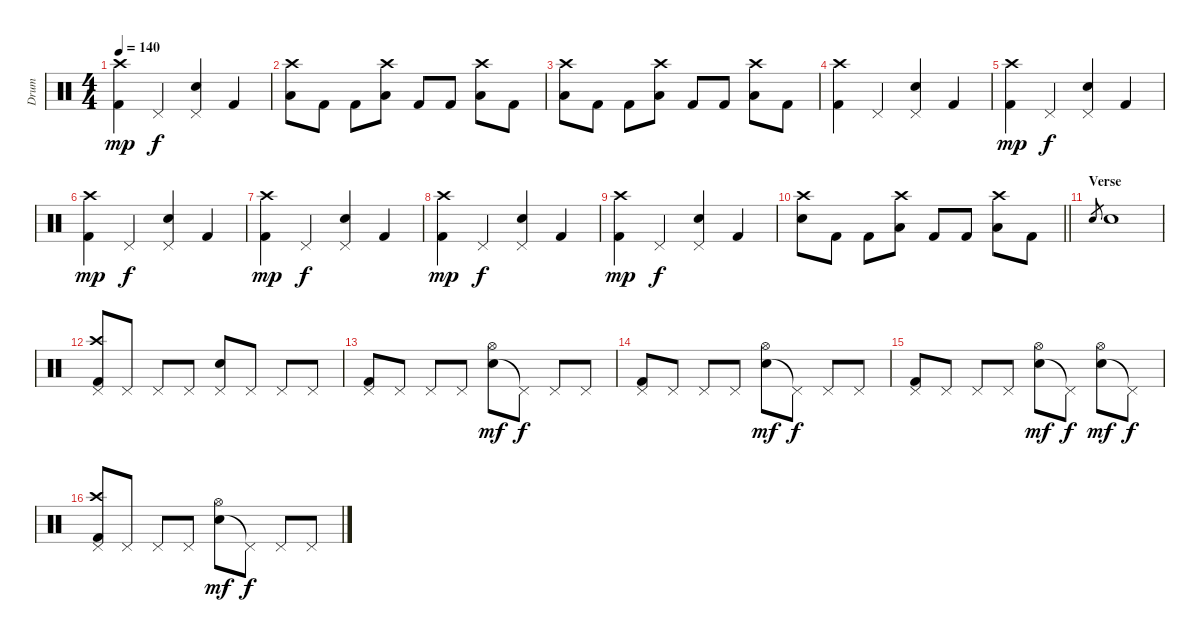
\track ("Drum" "Drum") {instrument percussion}
\staff {score}
\articulation defaults
\ts (4 4)
\tempo 140
\clef neutral
\ks c
("Kick (hit) 2" "Crash high (hit)").4{dy mp} "Pedal Hi-Hat (hit)".4{dy f} ("Electric Snare (hit)" "Pedal Hi-Hat (hit)").4 "Kick (hit) 2".4 |
("Low Tom (hit)" "Crash high (hit)").8 "Kick (hit) 2".8 "Kick (hit) 2".8 ("Low Tom (hit)" "Crash high (hit)").8 "Kick (hit) 2".8 "Kick (hit) 2".8 ("Low Tom (hit)" "Crash high (hit)").8 "Kick (hit) 2".8 |
("Low Tom (hit)" "Crash high (hit)").8 "Kick (hit) 2".8 "Kick (hit) 2".8 ("Low Tom (hit)" "Crash high (hit)").8 "Kick (hit) 2".8 "Kick (hit) 2".8 ("Low Tom (hit)" "Crash high (hit)").8 "Kick (hit) 2".8 |
("Kick (hit) 2" "Crash high (hit)").4 "Pedal Hi-Hat (hit)".4 ("Electric Snare (hit)" "Pedal Hi-Hat (hit)").4 "Kick (hit) 2".4 |
("Kick (hit) 2" "Crash high (hit)").4{dy mp} "Pedal Hi-Hat (hit)".4{dy f} ("Electric Snare (hit)" "Pedal Hi-Hat (hit)").4 "Kick (hit) 2".4 |
("Kick (hit) 2" "Crash high (hit)").4{dy mp} "Pedal Hi-Hat (hit)".4{dy f} ("Electric Snare (hit)" "Pedal Hi-Hat (hit)").4 "Kick (hit) 2".4 |
("Kick (hit) 2" "Crash high (hit)").4{dy mp} "Pedal Hi-Hat (hit)".4{dy f} ("Electric Snare (hit)" "Pedal Hi-Hat (hit)").4 "Kick (hit) 2".4 |
("Kick (hit) 2" "Crash high (hit)").4{dy mp} "Pedal Hi-Hat (hit)".4{dy f} ("Electric Snare (hit)" "Pedal Hi-Hat (hit)").4 "Kick (hit) 2".4 |
("Kick (hit) 2" "Crash high (hit)").4{dy mp} "Pedal Hi-Hat (hit)".4{dy f} ("Electric Snare (hit)" "Pedal Hi-Hat (hit)").4 "Kick (hit) 2".4 |
\barLineRight lightlight
("Electric Snare (hit)" "Crash high (hit)").8 "Kick (hit) 2".8 "Kick (hit) 2".8 ("Low Tom (hit)" "Crash high (hit)").8 "Kick (hit) 2".8 "Kick (hit) 2".8 ("Low Tom (hit)" "Crash high (hit)").8 "Kick (hit) 2".8 |
\section ("" "Verse")
"Electric Snare (hit)".8{gr} "Electric Snare (hit)".1 |
("Kick (hit) 2" "Pedal Hi-Hat (hit)" "Crash high (hit)").8 "Pedal Hi-Hat (hit)".8 "Pedal Hi-Hat (hit)".8 "Pedal Hi-Hat (hit)".8 ("Electric Snare (hit)" "Pedal Hi-Hat (hit)").8 "Pedal Hi-Hat (hit)".8 "Pedal Hi-Hat (hit)".8 "Pedal Hi-Hat (hit)".8 |
("Kick (hit) 2" "Pedal Hi-Hat (hit)").8 "Pedal Hi-Hat (hit)".8 "Pedal Hi-Hat (hit)".8 "Pedal Hi-Hat (hit)".8 ("Electric Snare (hit)" "Hi-Hat (open)").8{dy mf} "Pedal Hi-Hat (hit)"{t}.8{dy f} "Pedal Hi-Hat (hit)".8 "Pedal Hi-Hat (hit)".8 |
("Kick (hit) 2" "Pedal Hi-Hat (hit)").8 "Pedal Hi-Hat (hit)".8 "Pedal Hi-Hat (hit)".8 "Pedal Hi-Hat (hit)".8 ("Electric Snare (hit)" "Hi-Hat (open)").8{dy mf} "Pedal Hi-Hat (hit)"{t}.8{dy f} "Pedal Hi-Hat (hit)".8 "Pedal Hi-Hat (hit)".8 |
("Kick (hit) 2" "Pedal Hi-Hat (hit)").8 "Pedal Hi-Hat (hit)".8 "Pedal Hi-Hat (hit)".8 "Pedal Hi-Hat (hit)".8 ("Electric Snare (hit)" "Hi-Hat (open)").8{dy mf} "Pedal Hi-Hat (hit)"{t}.8{dy f} ("Electric Snare (hit)" "Hi-Hat (open)").8{dy mf} "Pedal Hi-Hat (hit)"{t}.8{dy f} |
("Kick (hit) 2" "Pedal Hi-Hat (hit)" "Crash high (hit)").8 "Pedal Hi-Hat (hit)".8 "Pedal Hi-Hat (hit)".8 "Pedal Hi-Hat (hit)".8 ("Electric Snare (hit)" "Hi-Hat (open)").8{dy mf} "Pedal Hi-Hat (hit)"{t}.8{dy f} "Pedal Hi-Hat (hit)".8 "Pedal Hi-Hat (hit)".8
